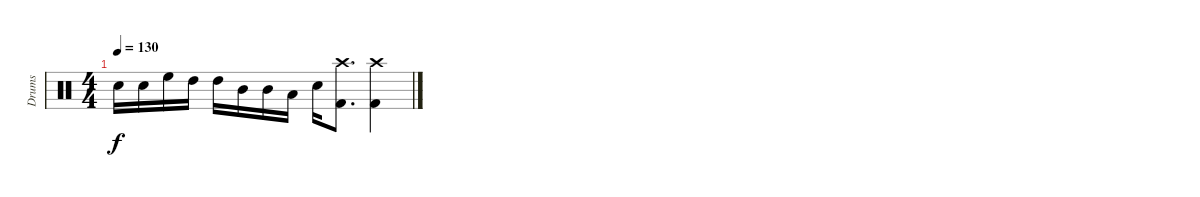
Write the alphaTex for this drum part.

\track ("Drums" "Drums") {instrument percussion}
\staff {score}
\articulation defaults
\ts (4 4)
\tempo 130
\clef neutral
\ks c "Snare (hit) 2".16{dy f} "Snare (hit) 2".16 "High Floor Tom (hit)".16 "High Tom (hit)".16 "High Tom (hit)".16 "Mid Tom (hit)".16 "Mid Tom (hit)".16 "Low Tom (hit)".16 "Snare (hit) 2".16
("Crash high (hit)" "Kick (hit) 2").8{d} ("Crash high (hit)" "Kick (hit) 2").4
